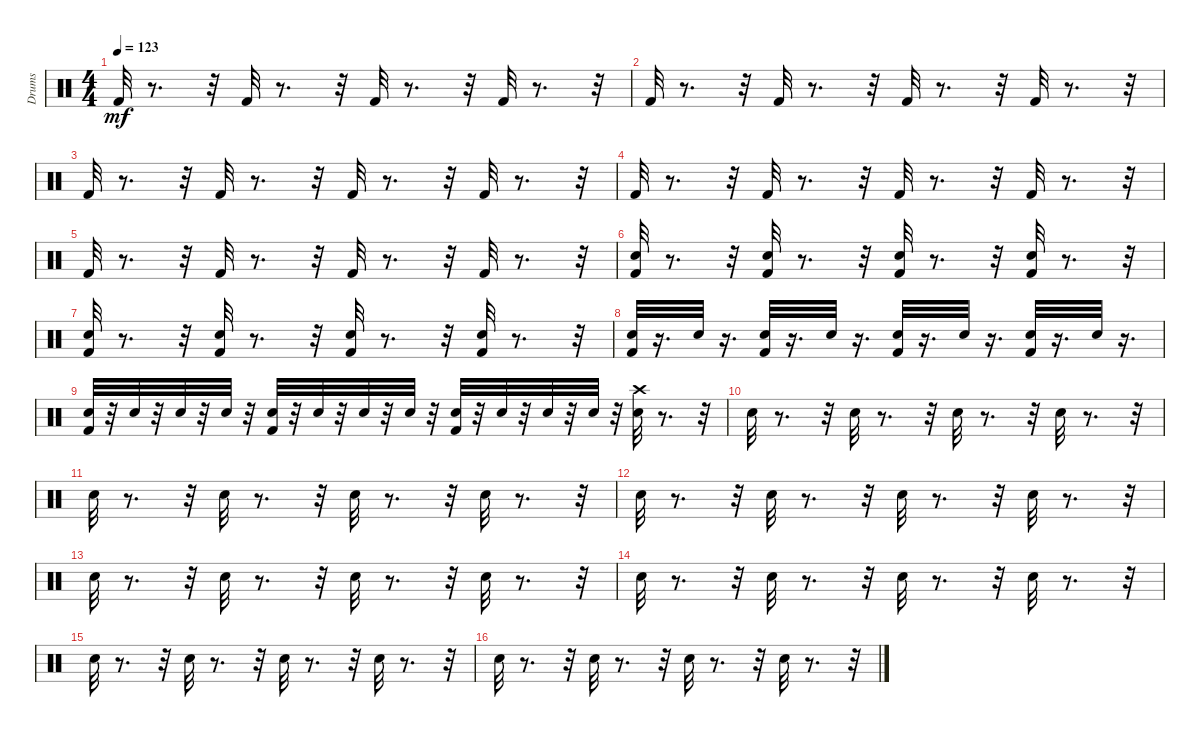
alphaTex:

\track ("Drums" "Drums") {instrument percussion}
\staff {score}
\articulation defaults
\ts (4 4)
\tempo 123
\clef neutral
\ks c "Kick (hit) 2".32{dy mf}
r.8{d} r.32 "Kick (hit) 2".32 r.8{d} r.32 "Kick (hit) 2".32 r.8{d} r.32 "Kick (hit) 2".32 r.8{d} r.32 |
"Kick (hit) 2".32 r.8{d} r.32 "Kick (hit) 2".32 r.8{d} r.32 "Kick (hit) 2".32 r.8{d} r.32 "Kick (hit) 2".32 r.8{d} r.32 |
"Kick (hit) 2".32 r.8{d} r.32 "Kick (hit) 2".32 r.8{d} r.32 "Kick (hit) 2".32 r.8{d} r.32 "Kick (hit) 2".32 r.8{d} r.32 |
"Kick (hit) 2".32 r.8{d} r.32 "Kick (hit) 2".32 r.8{d} r.32 "Kick (hit) 2".32 r.8{d} r.32 "Kick (hit) 2".32 r.8{d} r.32 |
"Kick (hit) 2".32 r.8{d} r.32 "Kick (hit) 2".32 r.8{d} r.32 "Kick (hit) 2".32 r.8{d} r.32 "Kick (hit) 2".32 r.8{d} r.32 |
("Kick (hit) 2" "Electric Snare (hit)").32 r.8{d} r.32 ("Kick (hit) 2" "Electric Snare (hit)").32 r.8{d} r.32 ("Kick (hit) 2" "Electric Snare (hit)").32 r.8{d} r.32 ("Kick (hit) 2" "Electric Snare (hit)").32 r.8{d} r.32 |
("Kick (hit) 2" "Electric Snare (hit)").32 r.8{d} r.32 ("Kick (hit) 2" "Electric Snare (hit)").32 r.8{d} r.32 ("Kick (hit) 2" "Electric Snare (hit)").32 r.8{d} r.32 ("Kick (hit) 2" "Electric Snare (hit)").32 r.8{d} r.32 |
("Kick (hit) 2" "Electric Snare (hit)").32 r.16{d} "Snare (hit) 2".32 r.16{d} ("Kick (hit) 2" "Electric Snare (hit)").32 r.16{d} "Snare (hit) 2".32 r.16{d} ("Kick (hit) 2" "Electric Snare (hit)").32 r.16{d} "Snare (hit) 2".32 r.16{d} ("Kick (hit) 2" "Electric Snare (hit)").32 r.16{d} "Snare (hit) 2".32 r.16{d} |
("Kick (hit) 2" "Electric Snare (hit)").32 r.32 "Snare (hit) 2".32 r.32 "Electric Snare (hit)".32 r.32 "Snare (hit) 2".32 r.32 ("Kick (hit) 2" "Electric Snare (hit)").32 r.32 "Snare (hit) 2".32 r.32 "Electric Snare (hit)".32 r.32 "Snare (hit) 2".32 r.32 ("Kick (hit) 2" "Electric Snare (hit)").32 r.32 "Snare (hit) 2".32 r.32 "Electric Snare (hit)".32 r.32 "Snare (hit) 2".32 r.32 ("Hand Clap (hit)" "Crash high (hit)").32 r.8{d} r.32 |
"Hand Clap (hit)".32 r.8{d} r.32 "Hand Clap (hit)".32 r.8{d} r.32 "Hand Clap (hit)".32 r.8{d} r.32 "Hand Clap (hit)".32 r.8{d} r.32 |
"Hand Clap (hit)".32 r.8{d} r.32 "Hand Clap (hit)".32 r.8{d} r.32 "Hand Clap (hit)".32 r.8{d} r.32 "Hand Clap (hit)".32 r.8{d} r.32 |
"Hand Clap (hit)".32 r.8{d} r.32 "Hand Clap (hit)".32 r.8{d} r.32 "Hand Clap (hit)".32 r.8{d} r.32 "Hand Clap (hit)".32 r.8{d} r.32 |
"Hand Clap (hit)".32 r.8{d} r.32 "Hand Clap (hit)".32 r.8{d} r.32 "Hand Clap (hit)".32 r.8{d} r.32 "Hand Clap (hit)".32 r.8{d} r.32 |
"Hand Clap (hit)".32 r.8{d} r.32 "Hand Clap (hit)".32 r.8{d} r.32 "Hand Clap (hit)".32 r.8{d} r.32 "Hand Clap (hit)".32 r.8{d} r.32 |
"Hand Clap (hit)".32 r.8{d} r.32 "Hand Clap (hit)".32 r.8{d} r.32 "Hand Clap (hit)".32 r.8{d} r.32 "Hand Clap (hit)".32 r.8{d} r.32 |
"Hand Clap (hit)".32 r.8{d} r.32 "Hand Clap (hit)".32 r.8{d} r.32 "Hand Clap (hit)".32 r.8{d} r.32 "Hand Clap (hit)".32 r.8{d} r.32
